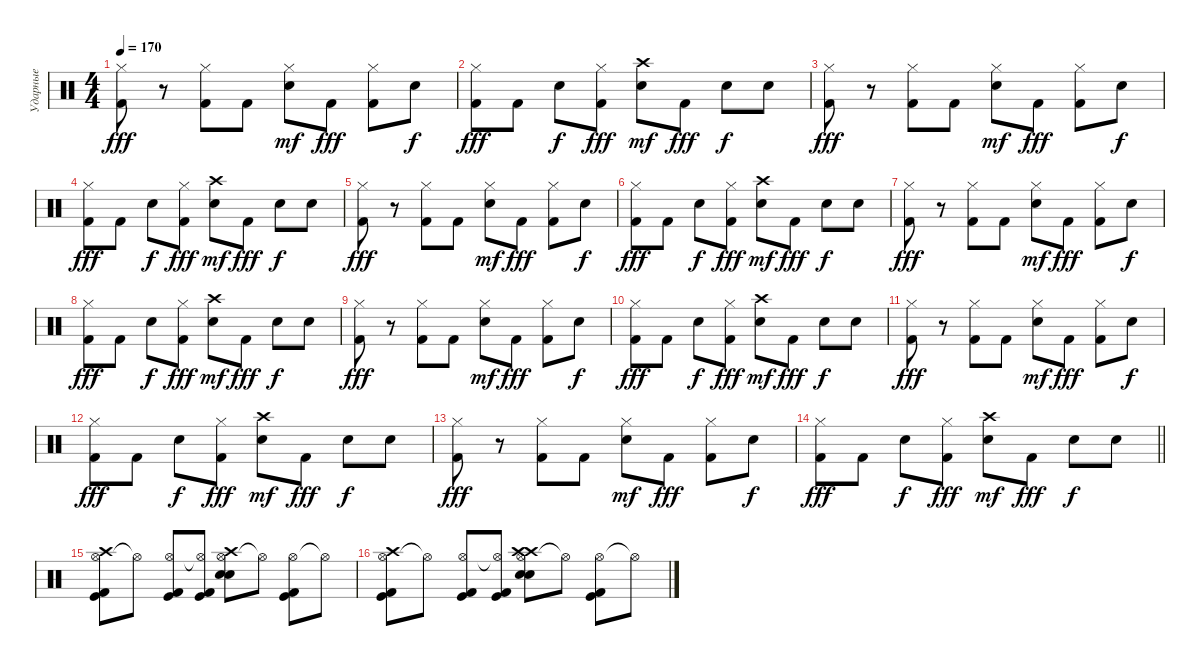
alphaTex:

\track ("Ударные" "Ударные") {instrument percussion}
\staff {score}
\articulation defaults
\ts (4 4)
\tempo 170
\clef neutral
\ks c
("Hi-Hat (closed)" "Kick (hit) 2").8{dy fff} r.8 ("Hi-Hat (closed)" "Kick (hit) 2").8 "Kick (hit) 2".8 ("Hi-Hat (closed)" "Electric Snare (hit)").8{dy mf} "Kick (hit) 2".8{dy fff} ("Hi-Hat (closed)" "Kick (hit) 2").8 "Electric Snare (hit)".8{dy f} |
("Hi-Hat (closed)" "Kick (hit) 2").8{dy fff} "Kick (hit) 2".8 "Electric Snare (hit)".8{dy f} ("Hi-Hat (closed)" "Kick (hit) 2").8{dy fff} ("Crash high (hit)" "Electric Snare (hit)").8{dy mf} "Kick (hit) 2".8{dy fff} "Electric Snare (hit)".8{dy f} "Electric Snare (hit)".8 |
("Hi-Hat (closed)" "Kick (hit) 2").8{dy fff} r.8 ("Hi-Hat (closed)" "Kick (hit) 2").8 "Kick (hit) 2".8 ("Hi-Hat (closed)" "Electric Snare (hit)").8{dy mf} "Kick (hit) 2".8{dy fff} ("Hi-Hat (closed)" "Kick (hit) 2").8 "Electric Snare (hit)".8{dy f} |
("Hi-Hat (closed)" "Kick (hit) 2").8{dy fff} "Kick (hit) 2".8 "Electric Snare (hit)".8{dy f} ("Hi-Hat (closed)" "Kick (hit) 2").8{dy fff} ("Crash high (hit)" "Electric Snare (hit)").8{dy mf} "Kick (hit) 2".8{dy fff} "Electric Snare (hit)".8{dy f} "Electric Snare (hit)".8 |
("Hi-Hat (closed)" "Kick (hit) 2").8{dy fff} r.8 ("Hi-Hat (closed)" "Kick (hit) 2").8 "Kick (hit) 2".8 ("Hi-Hat (closed)" "Electric Snare (hit)").8{dy mf} "Kick (hit) 2".8{dy fff} ("Hi-Hat (closed)" "Kick (hit) 2").8 "Electric Snare (hit)".8{dy f} |
("Hi-Hat (closed)" "Kick (hit) 2").8{dy fff} "Kick (hit) 2".8 "Electric Snare (hit)".8{dy f} ("Hi-Hat (closed)" "Kick (hit) 2").8{dy fff} ("Crash high (hit)" "Electric Snare (hit)").8{dy mf} "Kick (hit) 2".8{dy fff} "Electric Snare (hit)".8{dy f} "Electric Snare (hit)".8 |
("Hi-Hat (closed)" "Kick (hit) 2").8{dy fff} r.8 ("Hi-Hat (closed)" "Kick (hit) 2").8 "Kick (hit) 2".8 ("Hi-Hat (closed)" "Electric Snare (hit)").8{dy mf} "Kick (hit) 2".8{dy fff} ("Hi-Hat (closed)" "Kick (hit) 2").8 "Electric Snare (hit)".8{dy f} |
("Hi-Hat (closed)" "Kick (hit) 2").8{dy fff} "Kick (hit) 2".8 "Electric Snare (hit)".8{dy f} ("Hi-Hat (closed)" "Kick (hit) 2").8{dy fff} ("Crash high (hit)" "Electric Snare (hit)").8{dy mf} "Kick (hit) 2".8{dy fff} "Electric Snare (hit)".8{dy f} "Electric Snare (hit)".8 |
("Hi-Hat (closed)" "Kick (hit) 2").8{dy fff} r.8 ("Hi-Hat (closed)" "Kick (hit) 2").8 "Kick (hit) 2".8 ("Hi-Hat (closed)" "Electric Snare (hit)").8{dy mf} "Kick (hit) 2".8{dy fff} ("Hi-Hat (closed)" "Kick (hit) 2").8 "Electric Snare (hit)".8{dy f} |
("Hi-Hat (closed)" "Kick (hit) 2").8{dy fff} "Kick (hit) 2".8 "Electric Snare (hit)".8{dy f} ("Hi-Hat (closed)" "Kick (hit) 2").8{dy fff} ("Crash high (hit)" "Electric Snare (hit)").8{dy mf} "Kick (hit) 2".8{dy fff} "Electric Snare (hit)".8{dy f} "Electric Snare (hit)".8 |
("Hi-Hat (closed)" "Kick (hit) 2").8{dy fff} r.8 ("Hi-Hat (closed)" "Kick (hit) 2").8 "Kick (hit) 2".8 ("Hi-Hat (closed)" "Electric Snare (hit)").8{dy mf} "Kick (hit) 2".8{dy fff} ("Hi-Hat (closed)" "Kick (hit) 2").8 "Electric Snare (hit)".8{dy f} |
("Hi-Hat (closed)" "Kick (hit) 2").8{dy fff} "Kick (hit) 2".8 "Electric Snare (hit)".8{dy f} ("Hi-Hat (closed)" "Kick (hit) 2").8{dy fff} ("Crash high (hit)" "Electric Snare (hit)").8{dy mf} "Kick (hit) 2".8{dy fff} "Electric Snare (hit)".8{dy f} "Electric Snare (hit)".8 |
("Hi-Hat (closed)" "Kick (hit) 2").8{dy fff} r.8 ("Hi-Hat (closed)" "Kick (hit) 2").8 "Kick (hit) 2".8 ("Hi-Hat (closed)" "Electric Snare (hit)").8{dy mf} "Kick (hit) 2".8{dy fff} ("Hi-Hat (closed)" "Kick (hit) 2").8 "Electric Snare (hit)".8{dy f} |
\barLineRight lightlight
("Hi-Hat (closed)" "Kick (hit) 2").8{dy fff} "Kick (hit) 2".8 "Electric Snare (hit)".8{dy f} ("Hi-Hat (closed)" "Kick (hit) 2").8{dy fff} ("Crash high (hit)" "Electric Snare (hit)").8{dy mf} "Kick (hit) 2".8{dy fff} "Electric Snare (hit)".8{dy f} "Electric Snare (hit)".8 |
("Hi-Hat (open)" "Kick (hit)" "Kick (hit) 2" "Crash high (hit)").8 "Hi-Hat (open)"{t}.8 ("Hi-Hat (open)" "Kick (hit)" "Kick (hit) 2").8 ("Hi-Hat (open)"{t} "Kick (hit)" "Kick (hit) 2").8 ("Hi-Hat (open)" "Electric Snare (hit)" "Electric Snare (hit)" "Crash high (hit)").8 "Hi-Hat (open)"{t}.8 ("Hi-Hat (open)" "Kick (hit)" "Kick (hit) 2").8 "Hi-Hat (open)"{t}.8 |
("Hi-Hat (open)" "Kick (hit)" "Kick (hit) 2" "Crash high (hit)").8 "Hi-Hat (open)"{t}.8 ("Hi-Hat (open)" "Kick (hit)" "Kick (hit) 2").8 ("Hi-Hat (open)"{t} "Kick (hit)" "Kick (hit) 2").8 ("Hi-Hat (open)" "Electric Snare (hit)" "Electric Snare (hit)" "Crash high (hit)" "Crash high (hit)").8 "Hi-Hat (open)"{t}.8 ("Hi-Hat (open)" "Kick (hit)" "Kick (hit) 2").8 "Hi-Hat (open)"{t}.8
